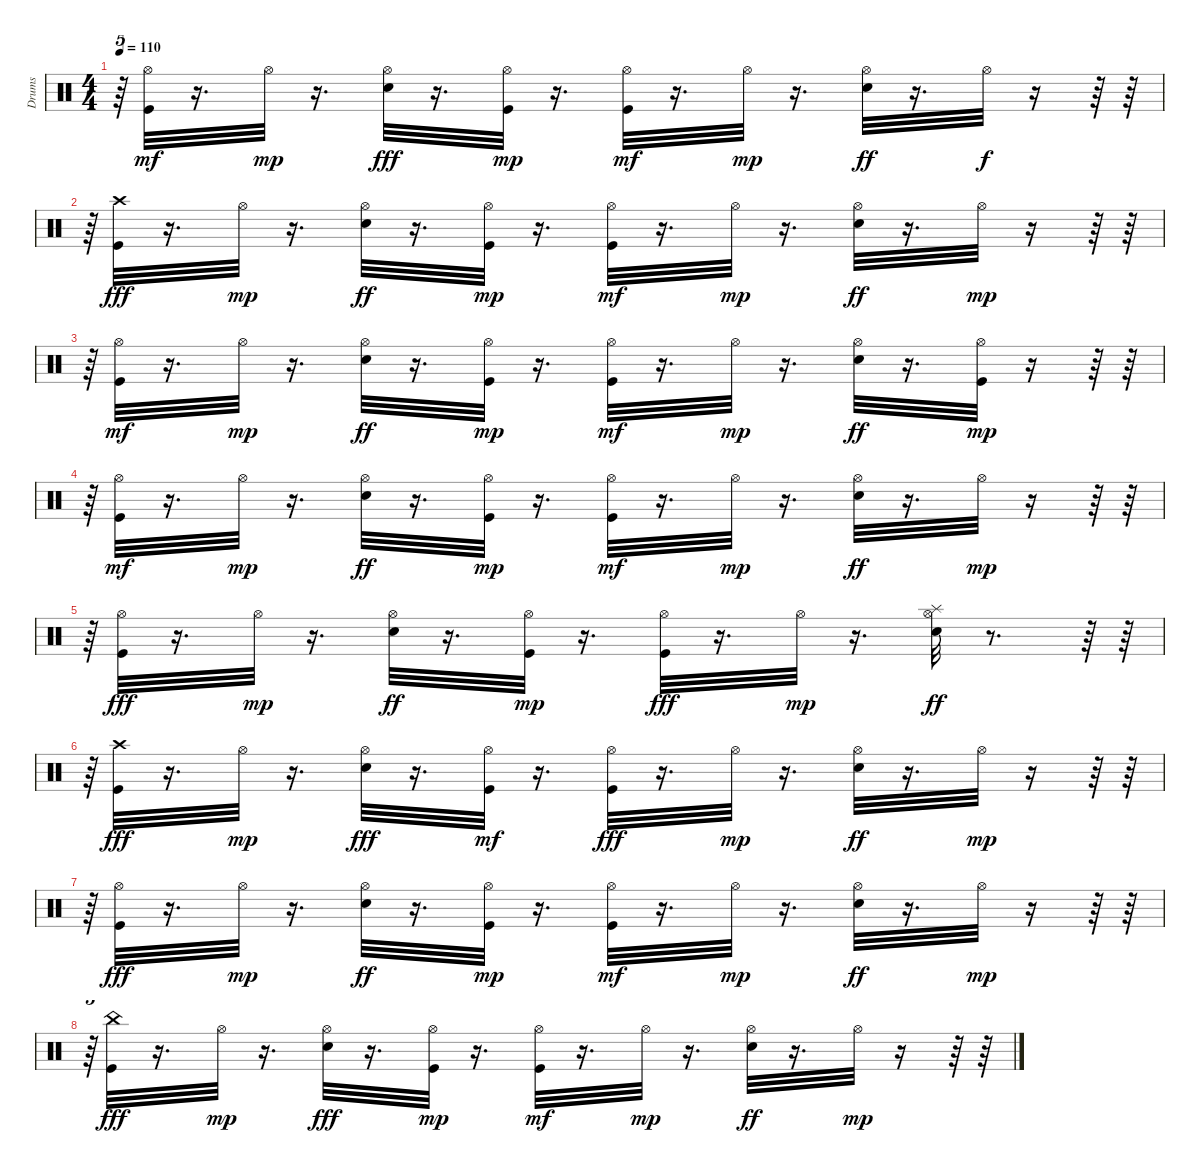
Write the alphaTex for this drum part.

\track ("Drums" "Drums") {instrument percussion}
\staff {score}
\articulation defaults
\ts (4 4)
\tempo 110
\clef neutral
\ks c
r.64{tu (5 4) dy mp} ("Kick (hit)" "Hi-Hat (open)").32{dy mf} r.16{d} "Hi-Hat (open)".32{dy mp} r.16{d} ("Electric Snare (hit)" "Hi-Hat (open)").32{dy fff} r.16{d} ("Kick (hit)" "Hi-Hat (open)").32{dy mp} r.16{d} ("Kick (hit)" "Hi-Hat (open)").32{dy mf} r.16{d} "Hi-Hat (open)".32{dy mp} r.16{d} ("Electric Snare (hit)" "Hi-Hat (open)").32{dy ff} r.16{d} "Hi-Hat (open)".32{dy f} r.16 r.64 r.64 |
r.64{tu (5 4)} ("Kick (hit)" "Crash high (hit)").32{dy fff} r.16{d} "Hi-Hat (open)".32{dy mp} r.16{d} ("Electric Snare (hit)" "Hi-Hat (open)").32{dy ff} r.16{d} ("Kick (hit)" "Hi-Hat (open)").32{dy mp} r.16{d} ("Kick (hit)" "Hi-Hat (open)").32{dy mf} r.16{d} "Hi-Hat (open)".32{dy mp} r.16{d} ("Electric Snare (hit)" "Hi-Hat (open)").32{dy ff} r.16{d} "Hi-Hat (open)".32{dy mp} r.16 r.64 r.64 |
r.64{tu (5 4)} ("Kick (hit)" "Hi-Hat (open)").32{dy mf} r.16{d} "Hi-Hat (open)".32{dy mp} r.16{d} ("Electric Snare (hit)" "Hi-Hat (open)").32{dy ff} r.16{d} ("Kick (hit)" "Hi-Hat (open)").32{dy mp} r.16{d} ("Kick (hit)" "Hi-Hat (open)").32{dy mf} r.16{d} "Hi-Hat (open)".32{dy mp} r.16{d} ("Electric Snare (hit)" "Hi-Hat (open)").32{dy ff} r.16{d} ("Kick (hit)" "Hi-Hat (open)").32{dy mp} r.16 r.64 r.64 |
r.64{tu (5 4)} ("Kick (hit)" "Hi-Hat (open)").32{dy mf} r.16{d} "Hi-Hat (open)".32{dy mp} r.16{d} ("Electric Snare (hit)" "Hi-Hat (open)").32{dy ff} r.16{d} ("Kick (hit)" "Hi-Hat (open)").32{dy mp} r.16{d} ("Kick (hit)" "Hi-Hat (open)").32{dy mf} r.16{d} "Hi-Hat (open)".32{dy mp} r.16{d} ("Electric Snare (hit)" "Hi-Hat (open)").32{dy ff} r.16{d} "Hi-Hat (open)".32{dy mp} r.16 r.64 r.64 |
r.64{tu (5 4)} ("Kick (hit)" "Hi-Hat (open)").32{dy fff} r.16{d} "Hi-Hat (open)".32{dy mp} r.16{d} ("Electric Snare (hit)" "Hi-Hat (open)").32{dy ff} r.16{d} ("Kick (hit)" "Hi-Hat (open)").32{dy mp} r.16{d} ("Kick (hit)" "Hi-Hat (open)").32{dy fff} r.16{d} "Hi-Hat (open)".32{dy mp} r.16{d} ("Electric Snare (hit)" "Hi-Hat (open)" "Splash (hit)").32{dy ff} r.8{d} r.64 r.64 |
r.64{tu (5 4)} ("Kick (hit)" "Crash high (hit)").32{dy fff} r.16{d} "Hi-Hat (open)".32{dy mp} r.16{d} ("Electric Snare (hit)" "Hi-Hat (open)").32{dy fff} r.16{d} ("Kick (hit)" "Hi-Hat (open)").32{dy mf} r.16{d} ("Kick (hit)" "Hi-Hat (open)").32{dy fff} r.16{d} "Hi-Hat (open)".32{dy mp} r.16{d} ("Electric Snare (hit)" "Hi-Hat (open)").32{dy ff} r.16{d} "Hi-Hat (open)".32{dy mp} r.16 r.64 r.64 |
r.64{tu (5 4)} ("Kick (hit)" "Hi-Hat (open)").32{dy fff} r.16{d} "Hi-Hat (open)".32{dy mp} r.16{d} ("Electric Snare (hit)" "Hi-Hat (open)").32{dy ff} r.16{d} ("Kick (hit)" "Hi-Hat (open)").32{dy mp} r.16{d} ("Kick (hit)" "Hi-Hat (open)").32{dy mf} r.16{d} "Hi-Hat (open)".32{dy mp} r.16{d} ("Electric Snare (hit)" "Hi-Hat (open)").32{dy ff} r.16{d} "Hi-Hat (open)".32{dy mp} r.16 r.64 r.64 |
r.64{tu (5 4)} ("Kick (hit)" "China (hit)").32{dy fff} r.16{d} "Hi-Hat (open)".32{dy mp} r.16{d} ("Electric Snare (hit)" "Hi-Hat (open)").32{dy fff} r.16{d} ("Kick (hit)" "Hi-Hat (open)").32{dy mp} r.16{d} ("Kick (hit)" "Hi-Hat (open)").32{dy mf} r.16{d} "Hi-Hat (open)".32{dy mp} r.16{d} ("Electric Snare (hit)" "Hi-Hat (open)").32{dy ff} r.16{d} "Hi-Hat (open)".32{dy mp} r.16 r.64 r.64
